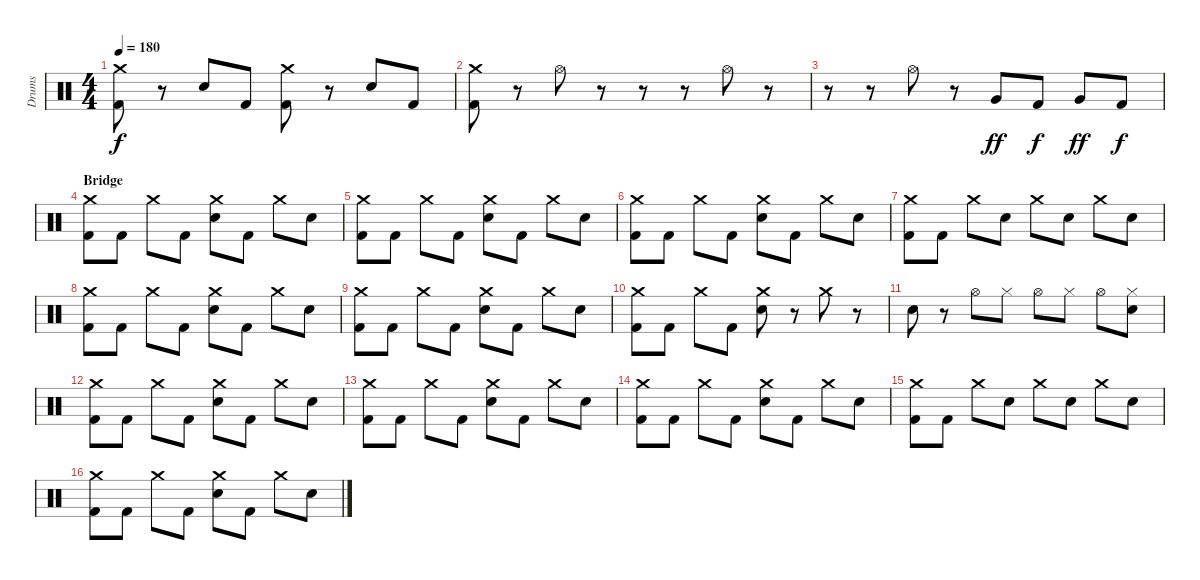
\track ("Drums" "Drums") {instrument percussion}
\staff {score}
\articulation defaults
\ts (4 4)
\tempo 180
\clef neutral
\ks c
("Crash medium (hit)" "Kick (hit) 2").8{dy f} r.8 "Electric Snare (hit)".8 "Kick (hit) 2".8 ("Crash medium (hit)" "Kick (hit) 2").8 r.8 "Electric Snare (hit)".8 "Kick (hit) 2".8 |
("Crash medium (hit)" "Kick (hit) 2").8 r.8 "Hi-Hat (open)".8 r.8 r.8 r.8 "Hi-Hat (open)".8 r.8 |
r.8 r.8 "Hi-Hat (open)".8 r.8 "Very Low Tom (hit)".8{dy ff} "Kick (hit) 2".8{dy f} "Very Low Tom (hit)".8{dy ff} "Kick (hit) 2".8{dy f} |
\section ("" "Bridge")
("Crash medium (hit)" "Kick (hit) 2").8 "Kick (hit) 2".8 "Crash medium (hit)".8 "Kick (hit) 2".8 ("Crash medium (hit)" "Electric Snare (hit)").8 "Kick (hit) 2".8 "Crash medium (hit)".8 "Electric Snare (hit)".8 |
("Crash medium (hit)" "Kick (hit) 2").8 "Kick (hit) 2".8 "Crash medium (hit)".8 "Kick (hit) 2".8 ("Crash medium (hit)" "Electric Snare (hit)").8 "Kick (hit) 2".8 "Crash medium (hit)".8 "Electric Snare (hit)".8 |
("Crash medium (hit)" "Kick (hit) 2").8 "Kick (hit) 2".8 "Crash medium (hit)".8 "Kick (hit) 2".8 ("Crash medium (hit)" "Electric Snare (hit)").8 "Kick (hit) 2".8 "Crash medium (hit)".8 "Electric Snare (hit)".8 |
("Crash medium (hit)" "Kick (hit) 2").8 "Kick (hit) 2".8 "Crash medium (hit)".8 "Electric Snare (hit)".8 "Crash medium (hit)".8 "Electric Snare (hit)".8 "Crash medium (hit)".8 "Electric Snare (hit)".8 |
("Crash medium (hit)" "Kick (hit) 2").8 "Kick (hit) 2".8 "Crash medium (hit)".8 "Kick (hit) 2".8 ("Crash medium (hit)" "Electric Snare (hit)").8 "Kick (hit) 2".8 "Crash medium (hit)".8 "Electric Snare (hit)".8 |
("Crash medium (hit)" "Kick (hit) 2").8 "Kick (hit) 2".8 "Crash medium (hit)".8 "Kick (hit) 2".8 ("Crash medium (hit)" "Electric Snare (hit)").8 "Kick (hit) 2".8 "Crash medium (hit)".8 "Electric Snare (hit)".8 |
("Crash medium (hit)" "Kick (hit) 2").8 "Kick (hit) 2".8 "Crash medium (hit)".8 "Kick (hit) 2".8 ("Crash medium (hit)" "Electric Snare (hit)").8 r.8 "Crash medium (hit)".8 r.8 |
"Electric Snare (hit)".8 r.8 "Hi-Hat (open)".8 "Hi-Hat (closed)".8 "Hi-Hat (open)".8 "Hi-Hat (closed)".8 "Hi-Hat (open)".8 ("Hi-Hat (closed)" "Electric Snare (hit)").8 |
("Crash medium (hit)" "Kick (hit) 2").8 "Kick (hit) 2".8 "Crash medium (hit)".8 "Kick (hit) 2".8 ("Crash medium (hit)" "Electric Snare (hit)").8 "Kick (hit) 2".8 "Crash medium (hit)".8 "Electric Snare (hit)".8 |
("Crash medium (hit)" "Kick (hit) 2").8 "Kick (hit) 2".8 "Crash medium (hit)".8 "Kick (hit) 2".8 ("Crash medium (hit)" "Electric Snare (hit)").8 "Kick (hit) 2".8 "Crash medium (hit)".8 "Electric Snare (hit)".8 |
("Crash medium (hit)" "Kick (hit) 2").8 "Kick (hit) 2".8 "Crash medium (hit)".8 "Kick (hit) 2".8 ("Crash medium (hit)" "Electric Snare (hit)").8 "Kick (hit) 2".8 "Crash medium (hit)".8 "Electric Snare (hit)".8 |
("Crash medium (hit)" "Kick (hit) 2").8 "Kick (hit) 2".8 "Crash medium (hit)".8 "Electric Snare (hit)".8 "Crash medium (hit)".8 "Electric Snare (hit)".8 "Crash medium (hit)".8 "Electric Snare (hit)".8 |
("Crash medium (hit)" "Kick (hit) 2").8 "Kick (hit) 2".8 "Crash medium (hit)".8 "Kick (hit) 2".8 ("Crash medium (hit)" "Electric Snare (hit)").8 "Kick (hit) 2".8 "Crash medium (hit)".8 "Electric Snare (hit)".8
